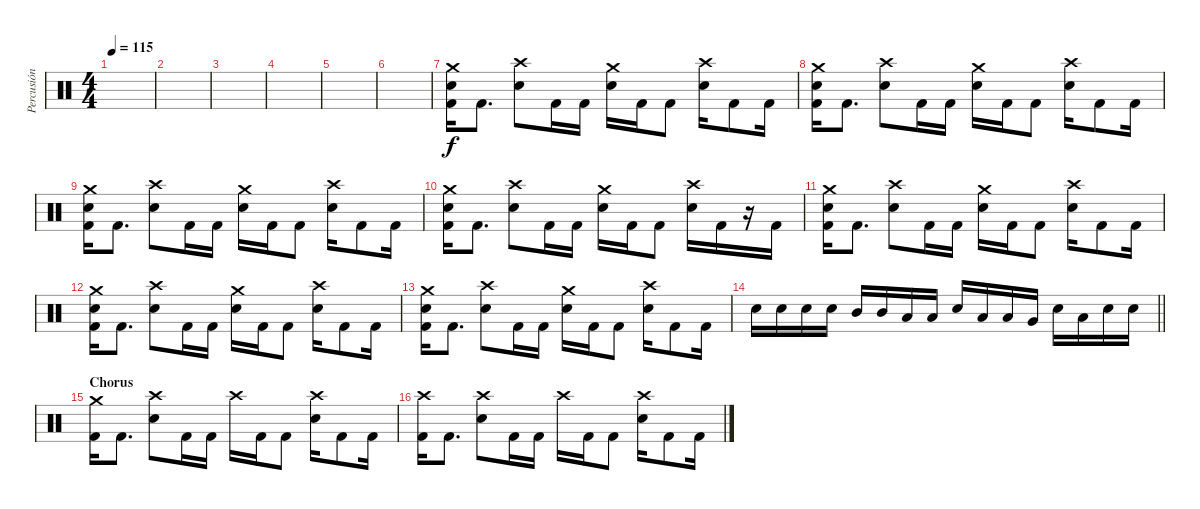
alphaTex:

\track ("Percusión" "Percusión") {instrument percussion}
\staff {score}
\articulation defaults
\ts (4 4)
\tempo 115
\clef neutral
\ks c
|
|
|
|
|
|
("Crash medium (hit)" "Snare (hit) 2" "Kick (hit) 2").16 "Kick (hit) 2".8{d} ("Crash high (hit)" "Snare (hit) 2").8 "Kick (hit) 2".16 "Kick (hit) 2".16 ("Crash medium (hit)" "Snare (hit) 2").16 "Kick (hit) 2".16 "Kick (hit) 2".8 ("Crash high (hit)" "Snare (hit) 2").16 "Kick (hit) 2".8 "Kick (hit) 2".16 |
("Crash medium (hit)" "Snare (hit) 2" "Kick (hit) 2").16 "Kick (hit) 2".8{d} ("Crash high (hit)" "Snare (hit) 2").8 "Kick (hit) 2".16 "Kick (hit) 2".16 ("Crash medium (hit)" "Snare (hit) 2").16 "Kick (hit) 2".16 "Kick (hit) 2".8 ("Crash high (hit)" "Snare (hit) 2").16 "Kick (hit) 2".8 "Kick (hit) 2".16 |
("Crash medium (hit)" "Snare (hit) 2" "Kick (hit) 2").16 "Kick (hit) 2".8{d} ("Crash high (hit)" "Snare (hit) 2").8 "Kick (hit) 2".16 "Kick (hit) 2".16 ("Crash medium (hit)" "Snare (hit) 2").16 "Kick (hit) 2".16 "Kick (hit) 2".8 ("Crash high (hit)" "Snare (hit) 2").16 "Kick (hit) 2".8 "Kick (hit) 2".16 |
("Crash medium (hit)" "Snare (hit) 2" "Kick (hit) 2").16 "Kick (hit) 2".8{d} ("Crash high (hit)" "Snare (hit) 2").8 "Kick (hit) 2".16 "Kick (hit) 2".16 ("Crash medium (hit)" "Snare (hit) 2").16 "Kick (hit) 2".16 "Kick (hit) 2".8 ("Crash high (hit)" "Snare (hit) 2").16 "Kick (hit) 2".16 r.16 "Kick (hit) 2".16 |
("Crash medium (hit)" "Snare (hit) 2" "Kick (hit) 2").16 "Kick (hit) 2".8{d} ("Crash high (hit)" "Snare (hit) 2").8 "Kick (hit) 2".16 "Kick (hit) 2".16 ("Crash medium (hit)" "Snare (hit) 2").16 "Kick (hit) 2".16 "Kick (hit) 2".8 ("Crash high (hit)" "Snare (hit) 2").16 "Kick (hit) 2".8 "Kick (hit) 2".16 |
("Crash medium (hit)" "Snare (hit) 2" "Kick (hit) 2").16 "Kick (hit) 2".8{d} ("Crash high (hit)" "Snare (hit) 2").8 "Kick (hit) 2".16 "Kick (hit) 2".16 ("Crash medium (hit)" "Snare (hit) 2").16 "Kick (hit) 2".16 "Kick (hit) 2".8 ("Crash high (hit)" "Snare (hit) 2").16 "Kick (hit) 2".8 "Kick (hit) 2".16 |
("Crash medium (hit)" "Snare (hit) 2" "Kick (hit) 2").16 "Kick (hit) 2".8{d} ("Crash high (hit)" "Snare (hit) 2").8 "Kick (hit) 2".16 "Kick (hit) 2".16 ("Crash medium (hit)" "Snare (hit) 2").16 "Kick (hit) 2".16 "Kick (hit) 2".8 ("Crash high (hit)" "Snare (hit) 2").16 "Kick (hit) 2".8 "Kick (hit) 2".16 |
\barLineRight lightlight "Snare (hit) 2".16 "Snare (hit) 2".16 "Snare (hit) 2".16 "Snare (hit) 2".16 "Mid Tom (hit)".16 "Mid Tom (hit)".16 "Low Tom (hit)".16 "Low Tom (hit)".16 "Snare (hit) 2".16 "Low Tom (hit)".16 "Low Tom (hit)".16 "Very Low Tom (hit)".16 "Snare (hit) 2".16 "Low Tom (hit)".16 "Snare (hit) 2".16 "Snare (hit) 2".16
|
\section ("" "Chorus")
("Crash medium (hit)" "Kick (hit) 2").16 "Kick (hit) 2".8{d} ("Crash high (hit)" "Snare (hit) 2").8 "Kick (hit) 2".16 "Kick (hit) 2".16 "Crash high (hit)".16 "Kick (hit) 2".16 "Kick (hit) 2".8 ("Crash high (hit)" "Snare (hit) 2").16 "Kick (hit) 2".8 "Kick (hit) 2".16 |
("Crash high (hit)" "Kick (hit) 2").16 "Kick (hit) 2".8{d} ("Crash high (hit)" "Snare (hit) 2").8 "Kick (hit) 2".16 "Kick (hit) 2".16 "Crash high (hit)".16 "Kick (hit) 2".16 "Kick (hit) 2".8 ("Crash high (hit)" "Snare (hit) 2").16 "Kick (hit) 2".8 "Kick (hit) 2".16
